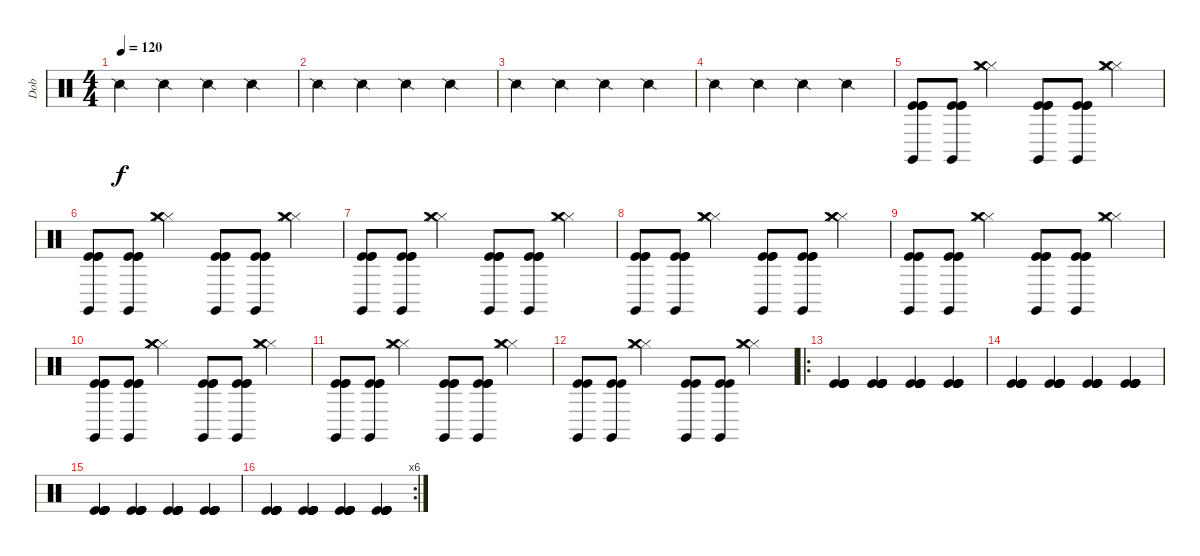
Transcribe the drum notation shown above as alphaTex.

\track ("Dob" "Dob") {instrument percussion}
\staff {score}
\articulation defaults
\ts (4 4)
\tempo 120
\clef neutral
\ks c "Snare (side stick) 2".4{dy f} "Snare (side stick) 2".4 "Snare (side stick) 2".4 "Snare (side stick) 2".4
|
"Snare (side stick) 2".4 "Snare (side stick) 2".4 "Snare (side stick) 2".4 "Snare (side stick) 2".4 |
"Snare (side stick) 2".4 "Snare (side stick) 2".4 "Snare (side stick) 2".4 "Snare (side stick) 2".4 |
"Snare (side stick) 2".4 "Snare (side stick) 2".4 "Snare (side stick) 2".4 "Snare (side stick) 2".4 |
("Claves (hit)" "Kick (hit)" "Kick (hit)" "Kick (hit)").8 ("Claves (hit)" "Kick (hit)" "Kick (hit)" "Kick (hit)").8 ("Hi-Hat (closed)" "Hi-Hat (closed)" "Hi-Hat (closed)" "Crash medium (hit)" "Hi-Hat (closed)").4 ("Claves (hit)" "Kick (hit)" "Kick (hit)" "Kick (hit)").8 ("Claves (hit)" "Kick (hit)" "Kick (hit)" "Kick (hit)").8 ("Hi-Hat (closed)" "Hi-Hat (closed)" "Hi-Hat (closed)" "Crash medium (hit)" "Hi-Hat (closed)").4 |
("Claves (hit)" "Kick (hit)" "Kick (hit)" "Kick (hit)").8 ("Claves (hit)" "Kick (hit)" "Kick (hit)" "Kick (hit)").8 ("Hi-Hat (closed)" "Hi-Hat (closed)" "Hi-Hat (closed)" "Crash medium (hit)" "Hi-Hat (closed)").4 ("Claves (hit)" "Kick (hit)" "Kick (hit)" "Kick (hit)").8 ("Claves (hit)" "Kick (hit)" "Kick (hit)" "Kick (hit)").8 ("Hi-Hat (closed)" "Hi-Hat (closed)" "Hi-Hat (closed)" "Crash medium (hit)" "Hi-Hat (closed)").4 |
("Claves (hit)" "Kick (hit)" "Kick (hit)" "Kick (hit)").8 ("Claves (hit)" "Kick (hit)" "Kick (hit)" "Kick (hit)").8 ("Hi-Hat (closed)" "Hi-Hat (closed)" "Hi-Hat (closed)" "Crash medium (hit)" "Hi-Hat (closed)").4 ("Claves (hit)" "Kick (hit)" "Kick (hit)" "Kick (hit)").8 ("Claves (hit)" "Kick (hit)" "Kick (hit)" "Kick (hit)").8 ("Hi-Hat (closed)" "Hi-Hat (closed)" "Hi-Hat (closed)" "Crash medium (hit)" "Hi-Hat (closed)").4 |
("Claves (hit)" "Kick (hit)" "Kick (hit)" "Kick (hit)").8 ("Claves (hit)" "Kick (hit)" "Kick (hit)" "Kick (hit)").8 ("Hi-Hat (closed)" "Hi-Hat (closed)" "Hi-Hat (closed)" "Crash medium (hit)" "Hi-Hat (closed)").4 ("Claves (hit)" "Kick (hit)" "Kick (hit)" "Kick (hit)").8 ("Claves (hit)" "Kick (hit)" "Kick (hit)" "Kick (hit)").8 ("Hi-Hat (closed)" "Hi-Hat (closed)" "Hi-Hat (closed)" "Crash medium (hit)" "Hi-Hat (closed)").4 |
("Claves (hit)" "Kick (hit)" "Kick (hit)" "Kick (hit)").8 ("Claves (hit)" "Kick (hit)" "Kick (hit)" "Kick (hit)").8 ("Hi-Hat (closed)" "Hi-Hat (closed)" "Hi-Hat (closed)" "Crash medium (hit)" "Hi-Hat (closed)").4 ("Claves (hit)" "Kick (hit)" "Kick (hit)" "Kick (hit)").8 ("Claves (hit)" "Kick (hit)" "Kick (hit)" "Kick (hit)").8 ("Hi-Hat (closed)" "Hi-Hat (closed)" "Hi-Hat (closed)" "Crash medium (hit)" "Hi-Hat (closed)").4 |
("Claves (hit)" "Kick (hit)" "Kick (hit)" "Kick (hit)").8 ("Claves (hit)" "Kick (hit)" "Kick (hit)" "Kick (hit)").8 ("Hi-Hat (closed)" "Hi-Hat (closed)" "Hi-Hat (closed)" "Crash medium (hit)" "Hi-Hat (closed)").4 ("Claves (hit)" "Kick (hit)" "Kick (hit)" "Kick (hit)").8 ("Claves (hit)" "Kick (hit)" "Kick (hit)" "Kick (hit)").8 ("Hi-Hat (closed)" "Hi-Hat (closed)" "Hi-Hat (closed)" "Crash medium (hit)" "Hi-Hat (closed)").4 |
("Claves (hit)" "Kick (hit)" "Kick (hit)" "Kick (hit)").8 ("Claves (hit)" "Kick (hit)" "Kick (hit)" "Kick (hit)").8 ("Hi-Hat (closed)" "Hi-Hat (closed)" "Hi-Hat (closed)" "Crash medium (hit)" "Hi-Hat (closed)").4 ("Claves (hit)" "Kick (hit)" "Kick (hit)" "Kick (hit)").8 ("Claves (hit)" "Kick (hit)" "Kick (hit)" "Kick (hit)").8 ("Hi-Hat (closed)" "Hi-Hat (closed)" "Hi-Hat (closed)" "Crash medium (hit)" "Hi-Hat (closed)").4 |
("Claves (hit)" "Kick (hit)" "Kick (hit)").8 ("Claves (hit)" "Kick (hit)" "Kick (hit)").8 ("Hi-Hat (closed)" "Hi-Hat (closed)" "Hi-Hat (closed)" "Crash medium (hit)" "Hi-Hat (closed)").4 ("Claves (hit)" "Kick (hit)" "Kick (hit)").8 ("Claves (hit)" "Kick (hit)" "Kick (hit)").8 ("Hi-Hat (closed)" "Hi-Hat (closed)" "Hi-Hat (closed)" "Crash medium (hit)" "Hi-Hat (closed)").4 |
\ro
("Kick (hit)" "Kick (hit)" "Kick (hit)" "Kick (hit)" "Kick (hit)" "Kick (hit)").4 ("Kick (hit)" "Kick (hit)" "Kick (hit)" "Kick (hit)" "Kick (hit)" "Kick (hit)").4 ("Kick (hit)" "Kick (hit)" "Kick (hit)" "Kick (hit)" "Kick (hit)" "Kick (hit)").4 ("Kick (hit)" "Kick (hit)" "Kick (hit)" "Kick (hit)" "Kick (hit)" "Kick (hit)").4 |
("Kick (hit)" "Kick (hit)" "Kick (hit)" "Kick (hit)" "Kick (hit)" "Kick (hit)").4 ("Kick (hit)" "Kick (hit)" "Kick (hit)" "Kick (hit)" "Kick (hit)" "Kick (hit)").4 ("Kick (hit)" "Kick (hit)" "Kick (hit)" "Kick (hit)" "Kick (hit)" "Kick (hit)").4 ("Kick (hit)" "Kick (hit)" "Kick (hit)" "Kick (hit)" "Kick (hit)" "Kick (hit)").4 |
("Kick (hit)" "Kick (hit)" "Kick (hit)" "Kick (hit)" "Kick (hit)" "Kick (hit)").4 ("Kick (hit)" "Kick (hit)" "Kick (hit)" "Kick (hit)" "Kick (hit)" "Kick (hit)").4 ("Kick (hit)" "Kick (hit)" "Kick (hit)" "Kick (hit)" "Kick (hit)" "Kick (hit)").4 ("Kick (hit)" "Kick (hit)" "Kick (hit)" "Kick (hit)" "Kick (hit)" "Kick (hit)").4 |
\rc 6
("Kick (hit)" "Kick (hit)" "Kick (hit)" "Kick (hit)" "Kick (hit)" "Kick (hit)").4 ("Kick (hit)" "Kick (hit)" "Kick (hit)" "Kick (hit)" "Kick (hit)" "Kick (hit)").4 ("Kick (hit)" "Kick (hit)" "Kick (hit)" "Kick (hit)" "Kick (hit)" "Kick (hit)").4 ("Kick (hit)" "Kick (hit)" "Kick (hit)" "Kick (hit)" "Kick (hit)" "Kick (hit)").4
